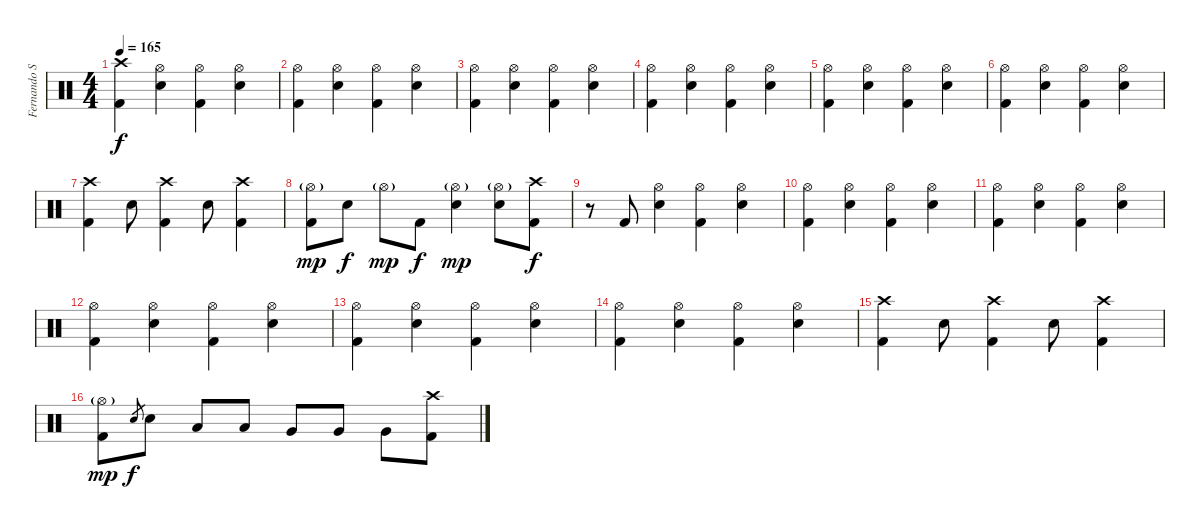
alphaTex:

\track ("Fernando Scarcella" "Fernando S") {instrument percussion}
\staff {score}
\articulation defaults
\ts (4 4)
\tempo 165
\clef neutral
\ks c
("Crash high (hit)" "Kick (hit) 2").4{dy f} ("Hi-Hat (open)" "Snare (hit) 2").4 ("Hi-Hat (open)" "Kick (hit) 2").4 ("Hi-Hat (open)" "Snare (hit) 2").4 |
("Hi-Hat (open)" "Kick (hit) 2").4 ("Hi-Hat (open)" "Snare (hit) 2").4 ("Hi-Hat (open)" "Kick (hit) 2").4 ("Hi-Hat (open)" "Snare (hit) 2").4 |
("Hi-Hat (open)" "Kick (hit) 2").4 ("Hi-Hat (open)" "Snare (hit) 2").4 ("Hi-Hat (open)" "Kick (hit) 2").4 ("Hi-Hat (open)" "Snare (hit) 2").4 |
("Hi-Hat (open)" "Kick (hit) 2").4 ("Hi-Hat (open)" "Snare (hit) 2").4 ("Hi-Hat (open)" "Kick (hit) 2").4 ("Hi-Hat (open)" "Snare (hit) 2").4 |
("Hi-Hat (open)" "Kick (hit) 2").4 ("Hi-Hat (open)" "Snare (hit) 2").4 ("Hi-Hat (open)" "Kick (hit) 2").4 ("Hi-Hat (open)" "Snare (hit) 2").4 |
("Hi-Hat (open)" "Kick (hit) 2").4 ("Hi-Hat (open)" "Snare (hit) 2").4 ("Hi-Hat (open)" "Kick (hit) 2").4 ("Hi-Hat (open)" "Snare (hit) 2").4 |
("Crash high (hit)" "Kick (hit) 2").4 "Snare (hit) 2".8 ("Crash high (hit)" "Kick (hit) 2").4 "Snare (hit) 2".8 ("Crash high (hit)" "Kick (hit) 2").4 |
("Hi-Hat (open)"{g} "Kick (hit) 2").8{dy mp} "Snare (hit) 2".8{dy f} "Hi-Hat (open)"{g}.8{dy mp} "Kick (hit) 2".8{dy f} ("Hi-Hat (open)"{g} "Snare (hit) 2").4{dy mp} ("Hi-Hat (open)"{g} "Snare (hit) 2").8 ("Crash high (hit)" "Kick (hit) 2").8{dy f} |
r.8 "Kick (hit) 2".8 ("Hi-Hat (open)" "Snare (hit) 2").4 ("Hi-Hat (open)" "Kick (hit) 2").4 ("Hi-Hat (open)" "Snare (hit) 2").4 |
("Hi-Hat (open)" "Kick (hit) 2").4 ("Hi-Hat (open)" "Snare (hit) 2").4 ("Hi-Hat (open)" "Kick (hit) 2").4 ("Hi-Hat (open)" "Snare (hit) 2").4 |
("Hi-Hat (open)" "Kick (hit) 2").4 ("Hi-Hat (open)" "Snare (hit) 2").4 ("Hi-Hat (open)" "Kick (hit) 2").4 ("Hi-Hat (open)" "Snare (hit) 2").4 |
("Hi-Hat (open)" "Kick (hit) 2").4 ("Hi-Hat (open)" "Snare (hit) 2").4 ("Hi-Hat (open)" "Kick (hit) 2").4 ("Hi-Hat (open)" "Snare (hit) 2").4 |
("Hi-Hat (open)" "Kick (hit) 2").4 ("Hi-Hat (open)" "Snare (hit) 2").4 ("Hi-Hat (open)" "Kick (hit) 2").4 ("Hi-Hat (open)" "Snare (hit) 2").4 |
("Hi-Hat (open)" "Kick (hit) 2").4 ("Hi-Hat (open)" "Snare (hit) 2").4 ("Hi-Hat (open)" "Kick (hit) 2").4 ("Hi-Hat (open)" "Snare (hit) 2").4 |
("Crash high (hit)" "Kick (hit) 2").4 "Snare (hit) 2".8 ("Crash high (hit)" "Kick (hit) 2").4 "Snare (hit) 2".8 ("Crash high (hit)" "Kick (hit) 2").4 |
("Hi-Hat (open)"{g} "Kick (hit) 2").8{dy mp} "Snare (hit) 2".8{gr dy f} "Snare (hit) 2".8 "Low Tom (hit)".8 "Low Tom (hit)".8 "Very Low Tom (hit)".8 "Very Low Tom (hit)".8 "Very Low Tom (hit)".8 ("Crash high (hit)" "Kick (hit) 2").8
